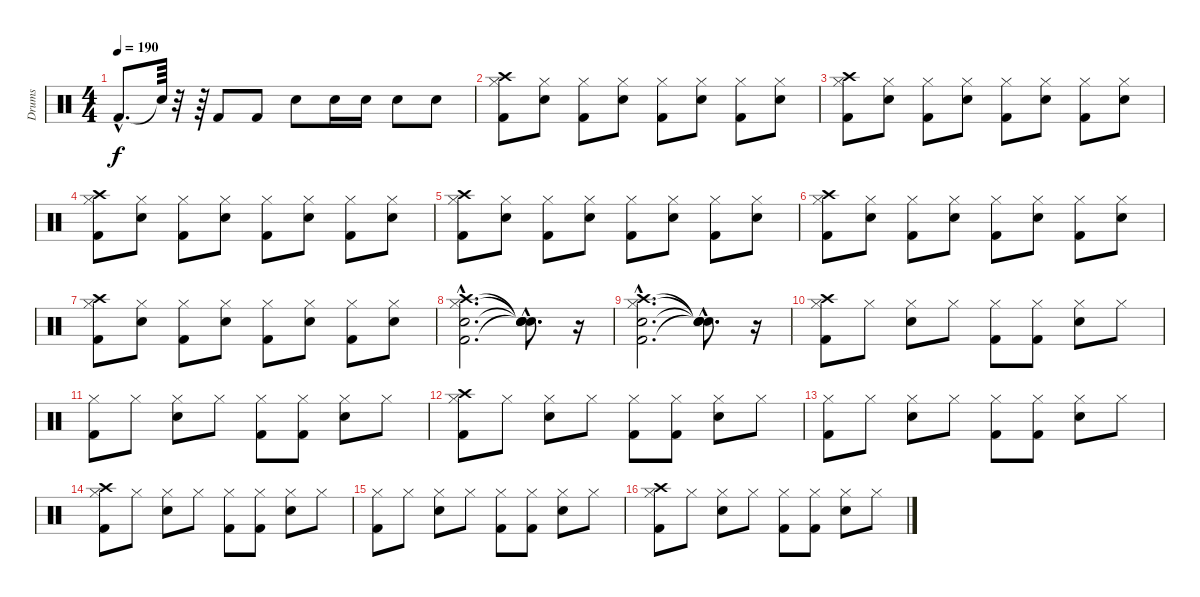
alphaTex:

\track ("Drums" "Drums") {instrument percussion}
\staff {score}
\articulation defaults
\ts (4 4)
\tempo 190
\clef neutral
\ks c "Kick (hit) 2"{hac}.8{d dy f} "Snare (hit)"{t}.64
r.32 r.64 "Kick (hit) 2".8 "Kick (hit) 2".8 "Snare (hit) 2".8 "Snare (hit) 2".16 "Snare (hit) 2".16 "Snare (hit) 2".8 "Snare (hit) 2".8 |
("Kick (hit) 2" "Hi-Hat (closed)" "Crash high (hit)").8 ("Snare (hit) 2" "Hi-Hat (closed)").8 ("Kick (hit) 2" "Hi-Hat (closed)").8 ("Snare (hit) 2" "Hi-Hat (closed)").8 ("Kick (hit) 2" "Hi-Hat (closed)").8 ("Snare (hit) 2" "Hi-Hat (closed)").8 ("Kick (hit) 2" "Hi-Hat (closed)").8 ("Snare (hit) 2" "Hi-Hat (closed)").8 |
("Kick (hit) 2" "Hi-Hat (closed)" "Crash high (hit)").8 ("Snare (hit) 2" "Hi-Hat (closed)").8 ("Kick (hit) 2" "Hi-Hat (closed)").8 ("Snare (hit) 2" "Hi-Hat (closed)").8 ("Kick (hit) 2" "Hi-Hat (closed)").8 ("Snare (hit) 2" "Hi-Hat (closed)").8 ("Kick (hit) 2" "Hi-Hat (closed)").8 ("Snare (hit) 2" "Hi-Hat (closed)").8 |
("Kick (hit) 2" "Hi-Hat (closed)" "Crash high (hit)").8 ("Snare (hit) 2" "Hi-Hat (closed)").8 ("Kick (hit) 2" "Hi-Hat (closed)").8 ("Snare (hit) 2" "Hi-Hat (closed)").8 ("Kick (hit) 2" "Hi-Hat (closed)").8 ("Snare (hit) 2" "Hi-Hat (closed)").8 ("Kick (hit) 2" "Hi-Hat (closed)").8 ("Snare (hit) 2" "Hi-Hat (closed)").8 |
("Kick (hit) 2" "Hi-Hat (closed)" "Crash high (hit)").8 ("Snare (hit) 2" "Hi-Hat (closed)").8 ("Kick (hit) 2" "Hi-Hat (closed)").8 ("Snare (hit) 2" "Hi-Hat (closed)").8 ("Kick (hit) 2" "Hi-Hat (closed)").8 ("Snare (hit) 2" "Hi-Hat (closed)").8 ("Kick (hit) 2" "Hi-Hat (closed)").8 ("Snare (hit) 2" "Hi-Hat (closed)").8 |
("Kick (hit) 2" "Hi-Hat (closed)" "Crash high (hit)").8 ("Snare (hit) 2" "Hi-Hat (closed)").8 ("Kick (hit) 2" "Hi-Hat (closed)").8 ("Snare (hit) 2" "Hi-Hat (closed)").8 ("Kick (hit) 2" "Hi-Hat (closed)").8 ("Snare (hit) 2" "Hi-Hat (closed)").8 ("Kick (hit) 2" "Hi-Hat (closed)").8 ("Snare (hit) 2" "Hi-Hat (closed)").8 |
("Kick (hit) 2" "Hi-Hat (closed)" "Crash high (hit)").8 ("Snare (hit) 2" "Hi-Hat (closed)").8 ("Kick (hit) 2" "Hi-Hat (closed)").8 ("Snare (hit) 2" "Hi-Hat (closed)").8 ("Kick (hit) 2" "Hi-Hat (closed)").8 ("Snare (hit) 2" "Hi-Hat (closed)").8 ("Kick (hit) 2" "Hi-Hat (closed)").8 ("Snare (hit) 2" "Hi-Hat (closed)").8 |
("Kick (hit) 2"{hac} "Snare (hit) 2"{hac} "Hi-Hat (closed)"{hac} "Crash high (hit)"{hac}).2{d} ("Snare (hit)"{hac t} "Snare (hit)"{hac t} "Snare (hit)"{hac t} "Snare (hit)"{hac t}).8{d} r.16 |
("Kick (hit) 2"{hac} "Snare (hit) 2"{hac} "Hi-Hat (closed)"{hac} "Crash high (hit)"{hac}).2{d} ("Snare (hit)"{hac t} "Snare (hit)"{hac t} "Snare (hit)"{hac t} "Snare (hit)"{hac t}).8{d} r.16 |
("Kick (hit) 2" "Hi-Hat (closed)" "Crash high (hit)").8 "Hi-Hat (closed)".8 ("Snare (hit) 2" "Hi-Hat (closed)").8 "Hi-Hat (closed)".8 ("Kick (hit) 2" "Hi-Hat (closed)").8 ("Kick (hit) 2" "Hi-Hat (closed)").8 ("Snare (hit) 2" "Hi-Hat (closed)").8 "Hi-Hat (closed)".8 |
("Kick (hit) 2" "Hi-Hat (closed)").8 "Hi-Hat (closed)".8 ("Snare (hit) 2" "Hi-Hat (closed)").8 "Hi-Hat (closed)".8 ("Kick (hit) 2" "Hi-Hat (closed)").8 ("Kick (hit) 2" "Hi-Hat (closed)").8 ("Snare (hit) 2" "Hi-Hat (closed)").8 "Hi-Hat (closed)".8 |
("Kick (hit) 2" "Hi-Hat (closed)" "Crash high (hit)").8 "Hi-Hat (closed)".8 ("Snare (hit) 2" "Hi-Hat (closed)").8 "Hi-Hat (closed)".8 ("Kick (hit) 2" "Hi-Hat (closed)").8 ("Kick (hit) 2" "Hi-Hat (closed)").8 ("Snare (hit) 2" "Hi-Hat (closed)").8 "Hi-Hat (closed)".8 |
("Kick (hit) 2" "Hi-Hat (closed)").8 "Hi-Hat (closed)".8 ("Snare (hit) 2" "Hi-Hat (closed)").8 "Hi-Hat (closed)".8 ("Kick (hit) 2" "Hi-Hat (closed)").8 ("Kick (hit) 2" "Hi-Hat (closed)").8 ("Snare (hit) 2" "Hi-Hat (closed)").8 "Hi-Hat (closed)".8 |
("Kick (hit) 2" "Hi-Hat (closed)" "Crash high (hit)").8 "Hi-Hat (closed)".8 ("Snare (hit) 2" "Hi-Hat (closed)").8 "Hi-Hat (closed)".8 ("Kick (hit) 2" "Hi-Hat (closed)").8 ("Kick (hit) 2" "Hi-Hat (closed)").8 ("Snare (hit) 2" "Hi-Hat (closed)").8 "Hi-Hat (closed)".8 |
("Kick (hit) 2" "Hi-Hat (closed)").8 "Hi-Hat (closed)".8 ("Snare (hit) 2" "Hi-Hat (closed)").8 "Hi-Hat (closed)".8 ("Kick (hit) 2" "Hi-Hat (closed)").8 ("Kick (hit) 2" "Hi-Hat (closed)").8 ("Snare (hit) 2" "Hi-Hat (closed)").8 "Hi-Hat (closed)".8 |
("Kick (hit) 2" "Hi-Hat (closed)" "Crash high (hit)").8 "Hi-Hat (closed)".8 ("Snare (hit) 2" "Hi-Hat (closed)").8 "Hi-Hat (closed)".8 ("Kick (hit) 2" "Hi-Hat (closed)").8 ("Kick (hit) 2" "Hi-Hat (closed)").8 ("Snare (hit) 2" "Hi-Hat (closed)").8 "Hi-Hat (closed)".8
